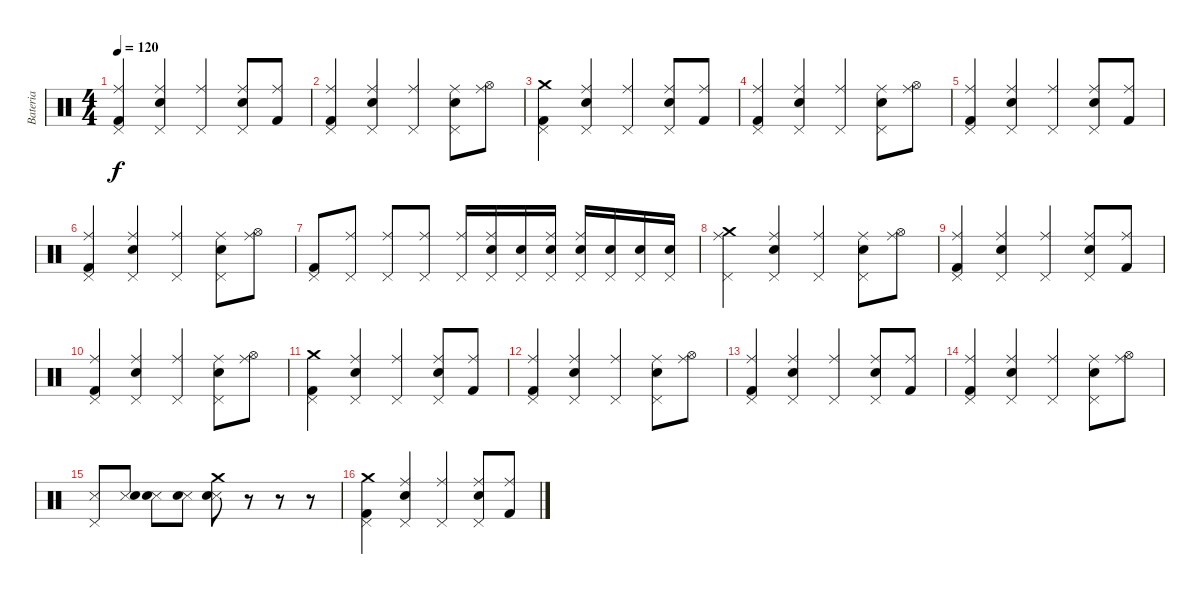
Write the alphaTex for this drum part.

\track ("Bateria" "Bateria") {instrument percussion}
\staff {score}
\articulation defaults
\ts (4 4)
\tempo 120
\clef neutral
\ks c
("Pedal Hi-Hat (hit)" "Kick (hit) 2" "Ride (middle)").4{dy f} ("Pedal Hi-Hat (hit)" "Electric Snare (hit)" "Ride (middle)").4 ("Pedal Hi-Hat (hit)" "Ride (middle)").4 ("Pedal Hi-Hat (hit)" "Electric Snare (hit)" "Ride (middle)").8 ("Kick (hit) 2" "Ride (middle)").8 |
("Pedal Hi-Hat (hit)" "Kick (hit) 2" "Ride (middle)").4 ("Pedal Hi-Hat (hit)" "Electric Snare (hit)" "Ride (middle)").4 ("Pedal Hi-Hat (hit)" "Ride (middle)").4 ("Pedal Hi-Hat (hit)" "Electric Snare (hit)" "Ride (middle)").8 ("Hi-Hat (open)" "Ride (middle)").8 |
("Pedal Hi-Hat (hit)" "Kick (hit) 2" "Crash medium (hit)").4 ("Pedal Hi-Hat (hit)" "Electric Snare (hit)" "Ride (middle)").4 ("Pedal Hi-Hat (hit)" "Ride (middle)").4 ("Pedal Hi-Hat (hit)" "Electric Snare (hit)" "Ride (middle)").8 ("Kick (hit) 2" "Ride (middle)").8 |
("Pedal Hi-Hat (hit)" "Kick (hit) 2" "Ride (middle)").4 ("Pedal Hi-Hat (hit)" "Electric Snare (hit)" "Ride (middle)").4 ("Pedal Hi-Hat (hit)" "Ride (middle)").4 ("Pedal Hi-Hat (hit)" "Electric Snare (hit)" "Ride (middle)").8 ("Hi-Hat (open)" "Ride (middle)").8 |
("Pedal Hi-Hat (hit)" "Kick (hit) 2" "Ride (middle)").4 ("Pedal Hi-Hat (hit)" "Electric Snare (hit)" "Ride (middle)").4 ("Pedal Hi-Hat (hit)" "Ride (middle)").4 ("Pedal Hi-Hat (hit)" "Electric Snare (hit)" "Ride (middle)").8 ("Kick (hit) 2" "Ride (middle)").8 |
("Pedal Hi-Hat (hit)" "Kick (hit) 2" "Ride (middle)").4 ("Pedal Hi-Hat (hit)" "Electric Snare (hit)" "Ride (middle)").4 ("Pedal Hi-Hat (hit)" "Ride (middle)").4 ("Pedal Hi-Hat (hit)" "Electric Snare (hit)" "Ride (middle)").8 ("Hi-Hat (open)" "Ride (middle)").8 |
("Pedal Hi-Hat (hit)" "Kick (hit) 2").8 ("Pedal Hi-Hat (hit)" "Ride (middle)").8 ("Pedal Hi-Hat (hit)" "Ride (middle)").8 ("Pedal Hi-Hat (hit)" "Ride (middle)").8 ("Pedal Hi-Hat (hit)" "Ride (middle)").16 ("Pedal Hi-Hat (hit)" "Ride (middle)" "Snare (hit) 2").16 ("Pedal Hi-Hat (hit)" "Snare (hit) 2").16 ("Pedal Hi-Hat (hit)" "Ride (middle)" "Snare (hit) 2").16 ("Pedal Hi-Hat (hit)" "Ride (middle)" "Snare (hit) 2").16 ("Pedal Hi-Hat (hit)" "Snare (hit) 2").16 ("Pedal Hi-Hat (hit)" "Snare (hit) 2").16 ("Pedal Hi-Hat (hit)" "Snare (hit) 2").16 |
("Pedal Hi-Hat (hit)" "Crash medium (hit)" "Ride (middle)").4 ("Pedal Hi-Hat (hit)" "Electric Snare (hit)" "Ride (middle)").4 ("Pedal Hi-Hat (hit)" "Ride (middle)").4 ("Pedal Hi-Hat (hit)" "Electric Snare (hit)" "Ride (middle)").8 ("Hi-Hat (open)" "Ride (middle)").8 |
("Pedal Hi-Hat (hit)" "Kick (hit) 2" "Ride (middle)").4 ("Pedal Hi-Hat (hit)" "Electric Snare (hit)" "Ride (middle)").4 ("Pedal Hi-Hat (hit)" "Ride (middle)").4 ("Pedal Hi-Hat (hit)" "Electric Snare (hit)" "Ride (middle)").8 ("Kick (hit) 2" "Ride (middle)").8 |
("Pedal Hi-Hat (hit)" "Kick (hit) 2" "Ride (middle)").4 ("Pedal Hi-Hat (hit)" "Electric Snare (hit)" "Ride (middle)").4 ("Pedal Hi-Hat (hit)" "Ride (middle)").4 ("Pedal Hi-Hat (hit)" "Electric Snare (hit)" "Ride (middle)").8 ("Hi-Hat (open)" "Ride (middle)").8 |
("Pedal Hi-Hat (hit)" "Kick (hit) 2" "Crash medium (hit)").4 ("Pedal Hi-Hat (hit)" "Electric Snare (hit)" "Ride (middle)").4 ("Pedal Hi-Hat (hit)" "Ride (middle)").4 ("Pedal Hi-Hat (hit)" "Electric Snare (hit)" "Ride (middle)").8 ("Kick (hit) 2" "Ride (middle)").8 |
("Pedal Hi-Hat (hit)" "Kick (hit) 2" "Ride (middle)").4 ("Pedal Hi-Hat (hit)" "Electric Snare (hit)" "Ride (middle)").4 ("Pedal Hi-Hat (hit)" "Ride (middle)").4 ("Pedal Hi-Hat (hit)" "Electric Snare (hit)" "Ride (middle)").8 ("Hi-Hat (open)" "Ride (middle)").8 |
("Pedal Hi-Hat (hit)" "Kick (hit) 2" "Ride (middle)").4 ("Pedal Hi-Hat (hit)" "Electric Snare (hit)" "Ride (middle)").4 ("Pedal Hi-Hat (hit)" "Ride (middle)").4 ("Pedal Hi-Hat (hit)" "Electric Snare (hit)" "Ride (middle)").8 ("Kick (hit) 2" "Ride (middle)").8 |
("Pedal Hi-Hat (hit)" "Kick (hit) 2" "Ride (middle)").4 ("Pedal Hi-Hat (hit)" "Electric Snare (hit)" "Ride (middle)").4 ("Pedal Hi-Hat (hit)" "Ride (middle)").4 ("Pedal Hi-Hat (hit)" "Electric Snare (hit)" "Ride (middle)").8 ("Hi-Hat (open)" "Ride (middle)").8 |
("Snare (side stick) 3" "Pedal Hi-Hat (hit)").8{volume 6} ("Snare (side stick) 3" "Snare (hit) 2").8{volume 7} ("Snare (side stick) 3" "Snare (hit) 2").8{volume 9} ("Snare (side stick) 3" "Snare (hit) 2").8{volume 11} ("Snare (side stick) 3" "Snare (hit) 2" "Crash medium (hit)").8{volume 16} r.8 r.8 r.8 |
("Pedal Hi-Hat (hit)" "Kick (hit) 2" "Crash medium (hit)").4 ("Pedal Hi-Hat (hit)" "Electric Snare (hit)" "Ride (middle)").4 ("Pedal Hi-Hat (hit)" "Ride (middle)").4 ("Pedal Hi-Hat (hit)" "Electric Snare (hit)" "Ride (middle)").8 ("Kick (hit) 2" "Ride (middle)").8
